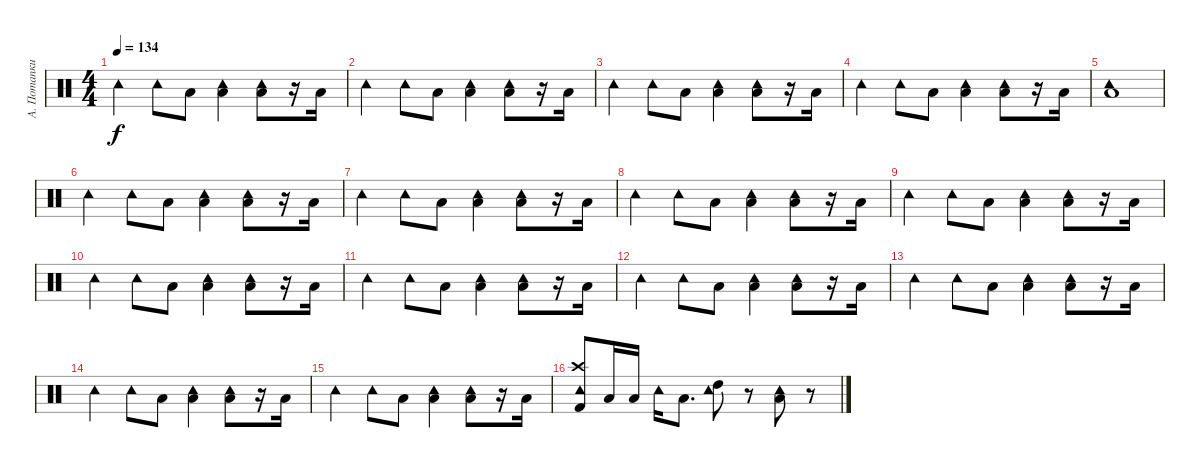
\track ("А. Потапкин" "А. Потапки") {instrument percussion}
\staff {score}
\articulation defaults
\ts (4 4)
\tempo 134
\clef neutral
\ks c "Tambourine (hit)".4{dy f} "Tambourine (hit)".8 "Low Tom (hit)".8
("Tambourine (hit)" "Low Tom (hit)").4 ("Tambourine (hit)" "Low Tom (hit)").8 r.16 "Low Tom (hit)".16 |
"Tambourine (hit)".4 "Tambourine (hit)".8 "Low Tom (hit)".8 ("Tambourine (hit)" "Low Tom (hit)").4 ("Tambourine (hit)" "Low Tom (hit)").8 r.16 "Low Tom (hit)".16 |
"Tambourine (hit)".4 "Tambourine (hit)".8 "Low Tom (hit)".8 ("Tambourine (hit)" "Low Tom (hit)").4 ("Tambourine (hit)" "Low Tom (hit)").8 r.16 "Low Tom (hit)".16 |
"Tambourine (hit)".4 "Tambourine (hit)".8 "Low Tom (hit)".8 ("Tambourine (hit)" "Low Tom (hit)").4 ("Tambourine (hit)" "Low Tom (hit)").8 r.16 "Low Tom (hit)".16 |
("Tambourine (hit)" "Low Tom (hit)").1 |
"Tambourine (hit)".4 "Tambourine (hit)".8 "Low Tom (hit)".8 ("Tambourine (hit)" "Low Tom (hit)").4 ("Tambourine (hit)" "Low Tom (hit)").8 r.16 "Low Tom (hit)".16 |
"Tambourine (hit)".4 "Tambourine (hit)".8 "Low Tom (hit)".8 ("Tambourine (hit)" "Low Tom (hit)").4 ("Tambourine (hit)" "Low Tom (hit)").8 r.16 "Low Tom (hit)".16 |
"Tambourine (hit)".4 "Tambourine (hit)".8 "Low Tom (hit)".8 ("Tambourine (hit)" "Low Tom (hit)").4 ("Tambourine (hit)" "Low Tom (hit)").8 r.16 "Low Tom (hit)".16 |
"Tambourine (hit)".4 "Tambourine (hit)".8 "Low Tom (hit)".8 ("Tambourine (hit)" "Low Tom (hit)").4 ("Tambourine (hit)" "Low Tom (hit)").8 r.16 "Low Tom (hit)".16 |
"Tambourine (hit)".4 "Tambourine (hit)".8 "Low Tom (hit)".8 ("Tambourine (hit)" "Low Tom (hit)").4 ("Tambourine (hit)" "Low Tom (hit)").8 r.16 "Low Tom (hit)".16 |
"Tambourine (hit)".4 "Tambourine (hit)".8 "Low Tom (hit)".8 ("Tambourine (hit)" "Low Tom (hit)").4 ("Tambourine (hit)" "Low Tom (hit)").8 r.16 "Low Tom (hit)".16 |
"Tambourine (hit)".4 "Tambourine (hit)".8 "Low Tom (hit)".8 ("Tambourine (hit)" "Low Tom (hit)").4 ("Tambourine (hit)" "Low Tom (hit)").8 r.16 "Low Tom (hit)".16 |
"Tambourine (hit)".4 "Tambourine (hit)".8 "Low Tom (hit)".8 ("Tambourine (hit)" "Low Tom (hit)").4 ("Tambourine (hit)" "Low Tom (hit)").8 r.16 "Low Tom (hit)".16 |
"Tambourine (hit)".4 "Tambourine (hit)".8 "Low Tom (hit)".8 ("Tambourine (hit)" "Low Tom (hit)").4 ("Tambourine (hit)" "Low Tom (hit)").8 r.16 "Low Tom (hit)".16 |
"Tambourine (hit)".4 "Tambourine (hit)".8 "Low Tom (hit)".8 ("Tambourine (hit)" "Low Tom (hit)").4 ("Tambourine (hit)" "Low Tom (hit)").8 r.16 "Low Tom (hit)".16 |
("Crash high (hit)" "Tambourine (hit)" "Kick (hit) 2").8 "Low Tom (hit)".16 "Low Tom (hit)".16 "Tambourine (hit)".16 "Low Tom (hit)".8{d} ("Tambourine (hit)" "High Tom (hit)").8 r.8 ("Tambourine (hit)" "Low Tom (hit)").8 r.8
